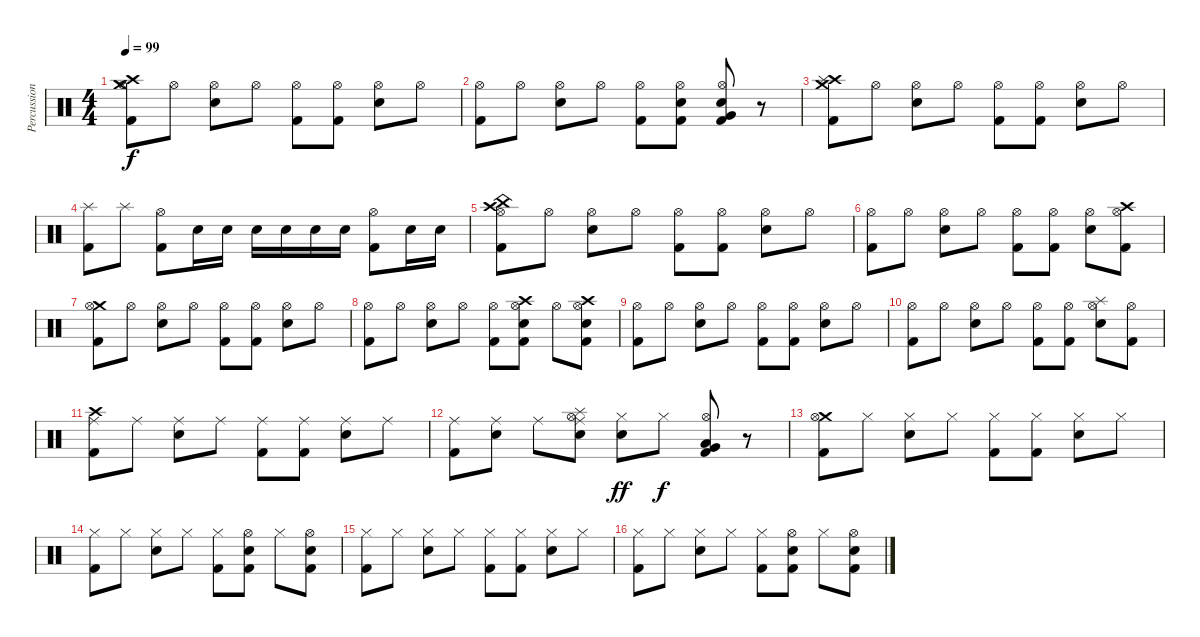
\track ("Percussion" "Percussion") {instrument percussion}
\staff {score}
\articulation defaults
\ts (4 4)
\tempo 99
\clef neutral
\ks c
("Crash high (hit)" "Crash medium (hit)" "Kick (hit) 2" "Hi-Hat (open)").8{dy f} "Hi-Hat (open)".8 ("Snare (hit) 2" "Hi-Hat (open)").8 "Hi-Hat (open)".8 ("Kick (hit) 2" "Hi-Hat (open)").8 ("Kick (hit) 2" "Hi-Hat (open)").8 ("Snare (hit) 2" "Hi-Hat (open)").8 "Hi-Hat (open)".8 |
("Kick (hit) 2" "Hi-Hat (open)").8 "Hi-Hat (open)".8 ("Snare (hit) 2" "Hi-Hat (open)").8 "Hi-Hat (open)".8 ("Kick (hit) 2" "Hi-Hat (open)").8 ("Snare (hit) 2" "Kick (hit) 2" "Hi-Hat (open)").8 ("Very Low Tom (hit)" "Snare (hit) 2" "Kick (hit) 2" "Hi-Hat (open)").8 r.8 |
("Crash high (hit)" "Crash medium (hit)" "Splash (hit)" "Kick (hit) 2").8 "Hi-Hat (open)".8 ("Snare (hit) 2" "Hi-Hat (open)").8 "Hi-Hat (open)".8 ("Kick (hit) 2" "Hi-Hat (open)").8 ("Kick (hit) 2" "Hi-Hat (open)").8 ("Snare (hit) 2" "Hi-Hat (open)").8 "Hi-Hat (open)".8 |
("Kick (hit) 2" "Splash (hit)").8 "Splash (hit)".8 ("Hi-Hat (open)" "Kick (hit) 2").8 "Snare (hit) 2".16 "Snare (hit) 2".16 "Snare (hit) 2".16 "Snare (hit) 2".16 "Snare (hit) 2".16 "Snare (hit) 2".16 ("Hi-Hat (open)" "Kick (hit) 2").8 "Snare (hit) 2".16 "Snare (hit) 2".16 |
("Crash high (hit)" "China (hit)" "Kick (hit) 2" "Hi-Hat (open)").8 "Hi-Hat (open)".8 ("Snare (hit) 2" "Hi-Hat (open)").8 "Hi-Hat (open)".8 ("Kick (hit) 2" "Hi-Hat (open)").8 ("Kick (hit) 2" "Hi-Hat (open)").8 ("Snare (hit) 2" "Hi-Hat (open)").8 "Hi-Hat (open)".8 |
("Kick (hit) 2" "Hi-Hat (open)").8 "Hi-Hat (open)".8 ("Snare (hit) 2" "Hi-Hat (open)").8 "Hi-Hat (open)".8 ("Kick (hit) 2" "Hi-Hat (open)").8 ("Kick (hit) 2" "Hi-Hat (open)").8 ("Snare (hit) 2" "Hi-Hat (open)").8 ("Crash high (hit)" "Kick (hit) 2" "Hi-Hat (open)").8 |
("Crash medium (hit)" "Kick (hit) 2" "Hi-Hat (open)").8 "Hi-Hat (open)".8 ("Snare (hit) 2" "Hi-Hat (open)").8 "Hi-Hat (open)".8 ("Kick (hit) 2" "Hi-Hat (open)").8 ("Kick (hit) 2" "Hi-Hat (open)").8 ("Snare (hit) 2" "Hi-Hat (open)").8 "Hi-Hat (open)".8 |
("Kick (hit) 2" "Hi-Hat (open)").8 "Hi-Hat (open)".8 ("Snare (hit) 2" "Hi-Hat (open)").8 "Hi-Hat (open)".8 ("Kick (hit) 2" "Hi-Hat (open)").8 ("Crash high (hit)" "Snare (hit) 2" "Kick (hit) 2" "Hi-Hat (open)").8 "Hi-Hat (open)".8 ("Crash high (hit)" "Snare (hit) 2" "Kick (hit) 2" "Hi-Hat (open)").8 |
("Kick (hit) 2" "Hi-Hat (open)").8 "Hi-Hat (open)".8 ("Snare (hit) 2" "Hi-Hat (open)").8 "Hi-Hat (open)".8 ("Kick (hit) 2" "Hi-Hat (open)").8 ("Kick (hit) 2" "Hi-Hat (open)").8 ("Snare (hit) 2" "Hi-Hat (open)").8 "Hi-Hat (open)".8 |
("Kick (hit) 2" "Hi-Hat (open)").8 "Hi-Hat (open)".8 ("Snare (hit) 2" "Hi-Hat (open)").8 "Hi-Hat (open)".8 ("Kick (hit) 2" "Hi-Hat (open)").8 ("Kick (hit) 2" "Hi-Hat (open)").8 ("Splash (hit)" "Snare (hit) 2" "Hi-Hat (open)").8 ("Kick (hit) 2" "Hi-Hat (open)").8 |
("Crash high (hit)" "Kick (hit) 2" "Ride (middle)").8 "Ride (middle)".8 ("Snare (hit) 2" "Ride (middle)").8 "Ride (middle)".8 ("Kick (hit) 2" "Ride (middle)").8 ("Kick (hit) 2" "Ride (middle)").8 ("Snare (hit) 2" "Ride (middle)").8 "Ride (middle)".8 |
("Kick (hit) 2" "Ride (middle)").8 ("Snare (hit) 2" "Ride (middle)").8 "Ride (middle)".8 ("Snare (hit) 2" "Hi-Hat (open)" "Splash (hit)" "Ride (middle)").8 ("Snare (hit) 2" "Hi-Hat (closed)").8{dy ff} "Hi-Hat (closed)".8{dy f} ("Hi-Hat (open)" "Kick (hit) 2" "Low Tom (hit)" "Very Low Tom (hit)").8 r.8 |
("Crash medium (hit)" "Kick (hit) 2" "Hi-Hat (open)").8 "Hi-Hat (closed)".8 ("Snare (hit) 2" "Hi-Hat (closed)").8 "Hi-Hat (closed)".8 ("Kick (hit) 2" "Hi-Hat (closed)").8 ("Kick (hit) 2" "Hi-Hat (closed)").8 ("Snare (hit) 2" "Hi-Hat (closed)").8 "Hi-Hat (closed)".8 |
("Kick (hit) 2" "Hi-Hat (closed)").8 "Hi-Hat (closed)".8 ("Snare (hit) 2" "Hi-Hat (closed)").8 "Hi-Hat (closed)".8 ("Kick (hit) 2" "Hi-Hat (closed)").8 ("Snare (hit) 2" "Kick (hit) 2" "Hi-Hat (open)").8 "Hi-Hat (closed)".8 ("Snare (hit) 2" "Kick (hit) 2" "Hi-Hat (open)").8 |
("Kick (hit) 2" "Hi-Hat (closed)").8 "Hi-Hat (closed)".8 ("Snare (hit) 2" "Hi-Hat (closed)").8 "Hi-Hat (closed)".8 ("Kick (hit) 2" "Hi-Hat (closed)").8 ("Kick (hit) 2" "Hi-Hat (closed)").8 ("Snare (hit) 2" "Hi-Hat (closed)").8 "Hi-Hat (closed)".8 |
("Kick (hit) 2" "Hi-Hat (closed)").8 "Hi-Hat (closed)".8 ("Snare (hit) 2" "Hi-Hat (closed)").8 "Hi-Hat (closed)".8 ("Kick (hit) 2" "Hi-Hat (closed)").8 ("Snare (hit) 2" "Kick (hit) 2" "Hi-Hat (open)").8 "Hi-Hat (closed)".8 ("Snare (hit) 2" "Kick (hit) 2" "Hi-Hat (open)").8
